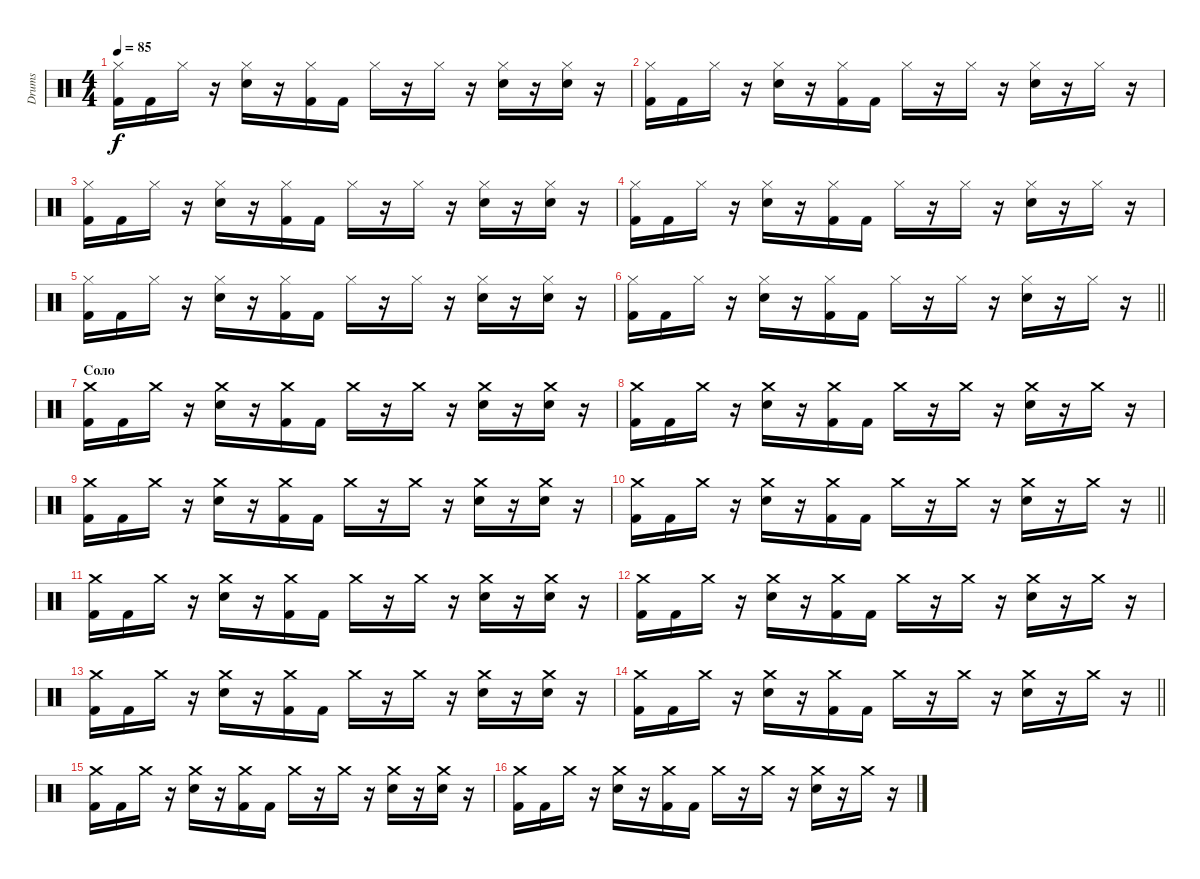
\track ("Drums" "Drums") {instrument percussion}
\staff {score}
\articulation defaults
\ts (4 4)
\tempo 85
\clef neutral
\ks c
("Hi-Hat (closed)" "Kick (hit) 2").16{dy f} "Kick (hit) 2".16 "Hi-Hat (closed)".16 r.16 ("Hi-Hat (closed)" "Electric Snare (hit)").16 r.16 ("Hi-Hat (closed)" "Kick (hit) 2").16 "Kick (hit) 2".16 "Hi-Hat (closed)".16 r.16 "Hi-Hat (closed)".16 r.16 ("Hi-Hat (closed)" "Electric Snare (hit)").16 r.16 ("Hi-Hat (closed)" "Electric Snare (hit)").16 r.16 |
("Hi-Hat (closed)" "Kick (hit) 2").16 "Kick (hit) 2".16 "Hi-Hat (closed)".16 r.16 ("Hi-Hat (closed)" "Electric Snare (hit)").16 r.16 ("Hi-Hat (closed)" "Kick (hit) 2").16 "Kick (hit) 2".16 "Hi-Hat (closed)".16 r.16 "Hi-Hat (closed)".16 r.16 ("Hi-Hat (closed)" "Electric Snare (hit)").16 r.16 "Hi-Hat (closed)".16 r.16 |
("Hi-Hat (closed)" "Kick (hit) 2").16 "Kick (hit) 2".16 "Hi-Hat (closed)".16 r.16 ("Hi-Hat (closed)" "Electric Snare (hit)").16 r.16 ("Hi-Hat (closed)" "Kick (hit) 2").16 "Kick (hit) 2".16 "Hi-Hat (closed)".16 r.16 "Hi-Hat (closed)".16 r.16 ("Hi-Hat (closed)" "Electric Snare (hit)").16 r.16 ("Hi-Hat (closed)" "Electric Snare (hit)").16 r.16 |
("Hi-Hat (closed)" "Kick (hit) 2").16 "Kick (hit) 2".16 "Hi-Hat (closed)".16 r.16 ("Hi-Hat (closed)" "Electric Snare (hit)").16 r.16 ("Hi-Hat (closed)" "Kick (hit) 2").16 "Kick (hit) 2".16 "Hi-Hat (closed)".16 r.16 "Hi-Hat (closed)".16 r.16 ("Hi-Hat (closed)" "Electric Snare (hit)").16 r.16 "Hi-Hat (closed)".16 r.16 |
("Hi-Hat (closed)" "Kick (hit) 2").16 "Kick (hit) 2".16 "Hi-Hat (closed)".16 r.16 ("Hi-Hat (closed)" "Electric Snare (hit)").16 r.16 ("Hi-Hat (closed)" "Kick (hit) 2").16 "Kick (hit) 2".16 "Hi-Hat (closed)".16 r.16 "Hi-Hat (closed)".16 r.16 ("Hi-Hat (closed)" "Electric Snare (hit)").16 r.16 ("Hi-Hat (closed)" "Electric Snare (hit)").16 r.16 |
\barLineRight lightlight
("Hi-Hat (closed)" "Kick (hit) 2").16 "Kick (hit) 2".16 "Hi-Hat (closed)".16 r.16 ("Hi-Hat (closed)" "Electric Snare (hit)").16 r.16 ("Hi-Hat (closed)" "Kick (hit) 2").16 "Kick (hit) 2".16 "Hi-Hat (closed)".16 r.16 "Hi-Hat (closed)".16 r.16 ("Hi-Hat (closed)" "Electric Snare (hit)").16 r.16 "Hi-Hat (closed)".16 r.16 |
\section ("" "Соло")
("Crash medium (hit)" "Kick (hit) 2").16 "Kick (hit) 2".16 "Crash medium (hit)".16 r.16 ("Crash medium (hit)" "Electric Snare (hit)").16 r.16 ("Crash medium (hit)" "Kick (hit) 2").16 "Kick (hit) 2".16 "Crash medium (hit)".16 r.16 "Crash medium (hit)".16 r.16 ("Crash medium (hit)" "Electric Snare (hit)").16 r.16 ("Crash medium (hit)" "Electric Snare (hit)").16 r.16 |
("Crash medium (hit)" "Kick (hit) 2").16 "Kick (hit) 2".16 "Crash medium (hit)".16 r.16 ("Crash medium (hit)" "Electric Snare (hit)").16 r.16 ("Crash medium (hit)" "Kick (hit) 2").16 "Kick (hit) 2".16 "Crash medium (hit)".16 r.16 "Crash medium (hit)".16 r.16 ("Crash medium (hit)" "Electric Snare (hit)").16 r.16 "Crash medium (hit)".16 r.16 |
("Crash medium (hit)" "Kick (hit) 2").16 "Kick (hit) 2".16 "Crash medium (hit)".16 r.16 ("Crash medium (hit)" "Electric Snare (hit)").16 r.16 ("Crash medium (hit)" "Kick (hit) 2").16 "Kick (hit) 2".16 "Crash medium (hit)".16 r.16 "Crash medium (hit)".16 r.16 ("Crash medium (hit)" "Electric Snare (hit)").16 r.16 ("Crash medium (hit)" "Electric Snare (hit)").16 r.16 |
\barLineRight lightlight
("Crash medium (hit)" "Kick (hit) 2").16 "Kick (hit) 2".16 "Crash medium (hit)".16 r.16 ("Crash medium (hit)" "Electric Snare (hit)").16 r.16 ("Crash medium (hit)" "Kick (hit) 2").16 "Kick (hit) 2".16 "Crash medium (hit)".16 r.16 "Crash medium (hit)".16 r.16 ("Crash medium (hit)" "Electric Snare (hit)").16 r.16 "Crash medium (hit)".16 r.16 |
("Crash medium (hit)" "Kick (hit) 2").16 "Kick (hit) 2".16 "Crash medium (hit)".16 r.16 ("Crash medium (hit)" "Electric Snare (hit)").16 r.16 ("Crash medium (hit)" "Kick (hit) 2").16 "Kick (hit) 2".16 "Crash medium (hit)".16 r.16 "Crash medium (hit)".16 r.16 ("Crash medium (hit)" "Electric Snare (hit)").16 r.16 ("Crash medium (hit)" "Electric Snare (hit)").16 r.16 |
("Crash medium (hit)" "Kick (hit) 2").16 "Kick (hit) 2".16 "Crash medium (hit)".16 r.16 ("Crash medium (hit)" "Electric Snare (hit)").16 r.16 ("Crash medium (hit)" "Kick (hit) 2").16 "Kick (hit) 2".16 "Crash medium (hit)".16 r.16 "Crash medium (hit)".16 r.16 ("Crash medium (hit)" "Electric Snare (hit)").16 r.16 "Crash medium (hit)".16 r.16 |
("Crash medium (hit)" "Kick (hit) 2").16 "Kick (hit) 2".16 "Crash medium (hit)".16 r.16 ("Crash medium (hit)" "Electric Snare (hit)").16 r.16 ("Crash medium (hit)" "Kick (hit) 2").16 "Kick (hit) 2".16 "Crash medium (hit)".16 r.16 "Crash medium (hit)".16 r.16 ("Crash medium (hit)" "Electric Snare (hit)").16 r.16 ("Crash medium (hit)" "Electric Snare (hit)").16 r.16 |
\barLineRight lightlight
("Crash medium (hit)" "Kick (hit) 2").16 "Kick (hit) 2".16 "Crash medium (hit)".16 r.16 ("Crash medium (hit)" "Electric Snare (hit)").16 r.16 ("Crash medium (hit)" "Kick (hit) 2").16 "Kick (hit) 2".16 "Crash medium (hit)".16 r.16 "Crash medium (hit)".16 r.16 ("Crash medium (hit)" "Electric Snare (hit)").16 r.16 "Crash medium (hit)".16 r.16 |
("Crash medium (hit)" "Kick (hit) 2").16 "Kick (hit) 2".16 "Crash medium (hit)".16 r.16 ("Crash medium (hit)" "Electric Snare (hit)").16 r.16 ("Crash medium (hit)" "Kick (hit) 2").16 "Kick (hit) 2".16 "Crash medium (hit)".16 r.16 "Crash medium (hit)".16 r.16 ("Crash medium (hit)" "Electric Snare (hit)").16 r.16 ("Crash medium (hit)" "Electric Snare (hit)").16 r.16 |
("Crash medium (hit)" "Kick (hit) 2").16 "Kick (hit) 2".16 "Crash medium (hit)".16 r.16 ("Crash medium (hit)" "Electric Snare (hit)").16 r.16 ("Crash medium (hit)" "Kick (hit) 2").16 "Kick (hit) 2".16 "Crash medium (hit)".16 r.16 "Crash medium (hit)".16 r.16 ("Crash medium (hit)" "Electric Snare (hit)").16 r.16 "Crash medium (hit)".16 r.16
